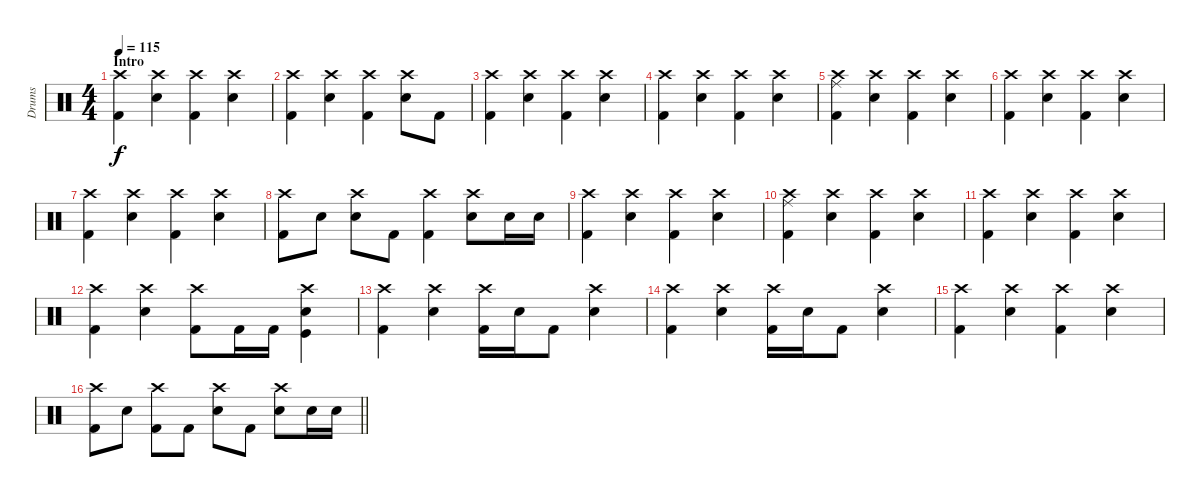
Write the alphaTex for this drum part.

\track ("Drums" "Drums") {instrument percussion}
\staff {score}
\articulation defaults
\ts (4 4)
\section ("" "Intro")
\tempo 115
\clef neutral
\ks c
("Crash high (hit)" "Kick (hit) 2").4{dy f} ("Crash high (hit)" "Snare (hit) 2").4 ("Crash high (hit)" "Kick (hit) 2").4 ("Crash high (hit)" "Snare (hit) 2").4 |
("Crash high (hit)" "Kick (hit) 2").4 ("Crash high (hit)" "Snare (hit) 2").4 ("Crash high (hit)" "Kick (hit) 2").4 ("Crash high (hit)" "Snare (hit) 2").8 "Kick (hit) 2".8 |
("Crash high (hit)" "Kick (hit) 2").4 ("Crash high (hit)" "Snare (hit) 2").4 ("Crash high (hit)" "Kick (hit) 2").4 ("Crash high (hit)" "Snare (hit) 2").4 |
("Crash high (hit)" "Kick (hit) 2").4 ("Crash high (hit)" "Snare (hit) 2").4 ("Crash high (hit)" "Kick (hit) 2").4 ("Crash high (hit)" "Snare (hit) 2").4 |
("Crash high (hit)" "Ride (middle)" "Kick (hit) 2").4 ("Crash high (hit)" "Snare (hit) 2").4 ("Crash high (hit)" "Kick (hit) 2").4 ("Crash high (hit)" "Snare (hit) 2").4 |
("Crash high (hit)" "Kick (hit) 2").4 ("Crash high (hit)" "Snare (hit) 2").4 ("Crash high (hit)" "Kick (hit) 2").4 ("Crash high (hit)" "Snare (hit) 2").4 |
("Crash high (hit)" "Kick (hit) 2").4 ("Crash high (hit)" "Snare (hit) 2").4 ("Crash high (hit)" "Kick (hit) 2").4 ("Crash high (hit)" "Snare (hit) 2").4 |
("Crash high (hit)" "Kick (hit) 2").8 "Snare (hit) 2".8 ("Crash high (hit)" "Snare (hit) 2").8 "Kick (hit) 2".8 ("Crash high (hit)" "Kick (hit) 2").4 ("Crash high (hit)" "Snare (hit) 2").8 "Snare (hit) 2".16 "Snare (hit) 2".16 |
("Crash high (hit)" "Kick (hit) 2").4 ("Crash high (hit)" "Snare (hit) 2").4 ("Crash high (hit)" "Kick (hit) 2").4 ("Crash high (hit)" "Snare (hit) 2").4 |
("Crash high (hit)" "Ride (middle)" "Kick (hit) 2").4 ("Crash high (hit)" "Snare (hit) 2").4 ("Crash high (hit)" "Kick (hit) 2").4 ("Crash high (hit)" "Snare (hit) 2").4 |
("Crash high (hit)" "Kick (hit) 2").4 ("Crash high (hit)" "Snare (hit) 2").4 ("Crash high (hit)" "Kick (hit) 2").4 ("Crash high (hit)" "Snare (hit) 2").4 |
("Crash high (hit)" "Kick (hit) 2").4 ("Crash high (hit)" "Snare (hit) 2").4 ("Crash high (hit)" "Kick (hit) 2").8 "Kick (hit) 2".16 "Kick (hit) 2".16 ("Crash high (hit)" "Kick (hit)" "Snare (hit) 2").4 |
("Crash high (hit)" "Kick (hit) 2").4 ("Crash high (hit)" "Snare (hit) 2").4 ("Crash high (hit)" "Kick (hit) 2").16 "Snare (hit) 2".16 "Kick (hit) 2".8 ("Crash high (hit)" "Snare (hit) 2").4 |
("Crash high (hit)" "Kick (hit) 2").4 ("Crash high (hit)" "Snare (hit) 2").4 ("Crash high (hit)" "Kick (hit) 2").16 "Snare (hit) 2".16 "Kick (hit) 2".8 ("Crash high (hit)" "Snare (hit) 2").4 |
("Crash high (hit)" "Kick (hit) 2").4 ("Crash high (hit)" "Snare (hit) 2").4 ("Crash high (hit)" "Kick (hit) 2").4 ("Crash high (hit)" "Snare (hit) 2").4 |
\barLineRight lightlight
("Crash high (hit)" "Kick (hit) 2").8 "Snare (hit) 2".8 ("Crash high (hit)" "Kick (hit) 2").8 "Kick (hit) 2".8 ("Crash high (hit)" "Snare (hit) 2").8 "Kick (hit) 2".8 ("Crash high (hit)" "Snare (hit) 2").8 "Snare (hit) 2".16 "Snare (hit) 2".16
